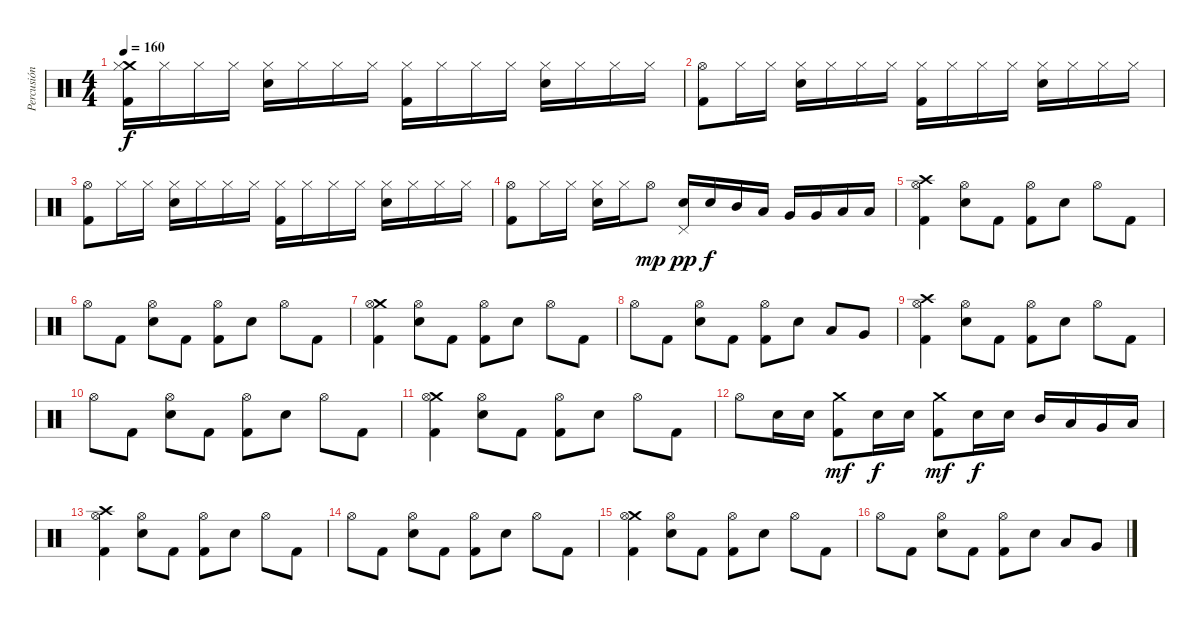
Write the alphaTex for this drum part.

\track ("Percusión" "Percusión") {instrument percussion}
\staff {score}
\articulation defaults
\ts (4 4)
\tempo 160
\clef neutral
\ks c
("Crash medium (hit)" "Hi-Hat (closed)" "Kick (hit) 2").16{dy f} "Hi-Hat (closed)".16 "Hi-Hat (closed)".16 "Hi-Hat (closed)".16 ("Hi-Hat (closed)" "Electric Snare (hit)").16 "Hi-Hat (closed)".16 "Hi-Hat (closed)".16 "Hi-Hat (closed)".16 ("Hi-Hat (closed)" "Kick (hit) 2").16 "Hi-Hat (closed)".16 "Hi-Hat (closed)".16 "Hi-Hat (closed)".16 ("Hi-Hat (closed)" "Electric Snare (hit)").16 "Hi-Hat (closed)".16 "Hi-Hat (closed)".16 "Hi-Hat (closed)".16 |
("Hi-Hat (open)" "Kick (hit) 2").8 "Hi-Hat (closed)".16 "Hi-Hat (closed)".16 ("Hi-Hat (closed)" "Electric Snare (hit)").16 "Hi-Hat (closed)".16 "Hi-Hat (closed)".16 "Hi-Hat (closed)".16 ("Hi-Hat (closed)" "Kick (hit) 2").16 "Hi-Hat (closed)".16 "Hi-Hat (closed)".16 "Hi-Hat (closed)".16 ("Hi-Hat (closed)" "Electric Snare (hit)").16 "Hi-Hat (closed)".16 "Hi-Hat (closed)".16 "Hi-Hat (closed)".16 |
("Hi-Hat (open)" "Kick (hit) 2").8 "Hi-Hat (closed)".16 "Hi-Hat (closed)".16 ("Hi-Hat (closed)" "Electric Snare (hit)").16 "Hi-Hat (closed)".16 "Hi-Hat (closed)".16 "Hi-Hat (closed)".16 ("Hi-Hat (closed)" "Kick (hit) 2").16 "Hi-Hat (closed)".16 "Hi-Hat (closed)".16 "Hi-Hat (closed)".16 ("Hi-Hat (closed)" "Electric Snare (hit)").16 "Hi-Hat (closed)".16 "Hi-Hat (closed)".16 "Hi-Hat (closed)".16 |
("Hi-Hat (open)" "Kick (hit) 2").8 "Hi-Hat (closed)".16 "Hi-Hat (closed)".16 ("Hi-Hat (closed)" "Electric Snare (hit)").16 "Hi-Hat (closed)".16 "Hi-Hat (open)".8{dy mp} ("Pedal Hi-Hat (hit)" "Electric Snare (hit)").16{dy pp} "Electric Snare (hit)".16{dy f} "Mid Tom (hit)".16 "Low Tom (hit)".16 "Very Low Tom (hit)".16 "Very Low Tom (hit)".16 "Low Floor Tom (hit)".16 "Low Floor Tom (hit)".16 |
("Crash high (hit)" "Hi-Hat (open)" "Kick (hit) 2").4 ("Hi-Hat (open)" "Electric Snare (hit)").8 "Kick (hit) 2".8 ("Hi-Hat (open)" "Kick (hit) 2").8 "Electric Snare (hit)".8 "Hi-Hat (open)".8 "Kick (hit) 2".8 |
"Hi-Hat (open)".8 "Kick (hit) 2".8 ("Hi-Hat (open)" "Electric Snare (hit)").8 "Kick (hit) 2".8 ("Hi-Hat (open)" "Kick (hit) 2").8 "Electric Snare (hit)".8 "Hi-Hat (open)".8 "Kick (hit) 2".8 |
("Crash medium (hit)" "Hi-Hat (open)" "Kick (hit) 2").4 ("Hi-Hat (open)" "Electric Snare (hit)").8 "Kick (hit) 2".8 ("Hi-Hat (open)" "Kick (hit) 2").8 "Electric Snare (hit)".8 "Hi-Hat (open)".8 "Kick (hit) 2".8 |
"Hi-Hat (open)".8 "Kick (hit) 2".8 ("Hi-Hat (open)" "Electric Snare (hit)").8 "Kick (hit) 2".8 ("Hi-Hat (open)" "Kick (hit) 2").8 "Electric Snare (hit)".8 "Low Tom (hit)".8 "Very Low Tom (hit)".8 |
("Crash high (hit)" "Hi-Hat (open)" "Kick (hit) 2").4 ("Hi-Hat (open)" "Electric Snare (hit)").8 "Kick (hit) 2".8 ("Hi-Hat (open)" "Kick (hit) 2").8 "Electric Snare (hit)".8 "Hi-Hat (open)".8 "Kick (hit) 2".8 |
"Hi-Hat (open)".8 "Kick (hit) 2".8 ("Hi-Hat (open)" "Electric Snare (hit)").8 "Kick (hit) 2".8 ("Hi-Hat (open)" "Kick (hit) 2").8 "Electric Snare (hit)".8 "Hi-Hat (open)".8 "Kick (hit) 2".8 |
("Crash medium (hit)" "Hi-Hat (open)" "Kick (hit) 2").4 ("Hi-Hat (open)" "Electric Snare (hit)").8 "Kick (hit) 2".8 ("Hi-Hat (open)" "Kick (hit) 2").8 "Electric Snare (hit)".8 "Hi-Hat (open)".8 "Kick (hit) 2".8 |
"Hi-Hat (open)".8 "Electric Snare (hit)".16 "Electric Snare (hit)".16 ("Crash medium (hit)" "Kick (hit) 2").8{dy mf} "Electric Snare (hit)".16{dy f} "Electric Snare (hit)".16 ("Crash medium (hit)" "Kick (hit) 2").8{dy mf} "Electric Snare (hit)".16{dy f} "Electric Snare (hit)".16 "Mid Tom (hit)".16 "Low Tom (hit)".16 "Very Low Tom (hit)".16 "Low Floor Tom (hit)".16 |
("Crash high (hit)" "Hi-Hat (open)" "Kick (hit) 2").4 ("Hi-Hat (open)" "Electric Snare (hit)").8 "Kick (hit) 2".8 ("Hi-Hat (open)" "Kick (hit) 2").8 "Electric Snare (hit)".8 "Hi-Hat (open)".8 "Kick (hit) 2".8 |
"Hi-Hat (open)".8 "Kick (hit) 2".8 ("Hi-Hat (open)" "Electric Snare (hit)").8 "Kick (hit) 2".8 ("Hi-Hat (open)" "Kick (hit) 2").8 "Electric Snare (hit)".8 "Hi-Hat (open)".8 "Kick (hit) 2".8 |
("Crash medium (hit)" "Hi-Hat (open)" "Kick (hit) 2").4 ("Hi-Hat (open)" "Electric Snare (hit)").8 "Kick (hit) 2".8 ("Hi-Hat (open)" "Kick (hit) 2").8 "Electric Snare (hit)".8 "Hi-Hat (open)".8 "Kick (hit) 2".8 |
"Hi-Hat (open)".8 "Kick (hit) 2".8 ("Hi-Hat (open)" "Electric Snare (hit)").8 "Kick (hit) 2".8 ("Hi-Hat (open)" "Kick (hit) 2").8 "Electric Snare (hit)".8 "Low Tom (hit)".8 "Very Low Tom (hit)".8
